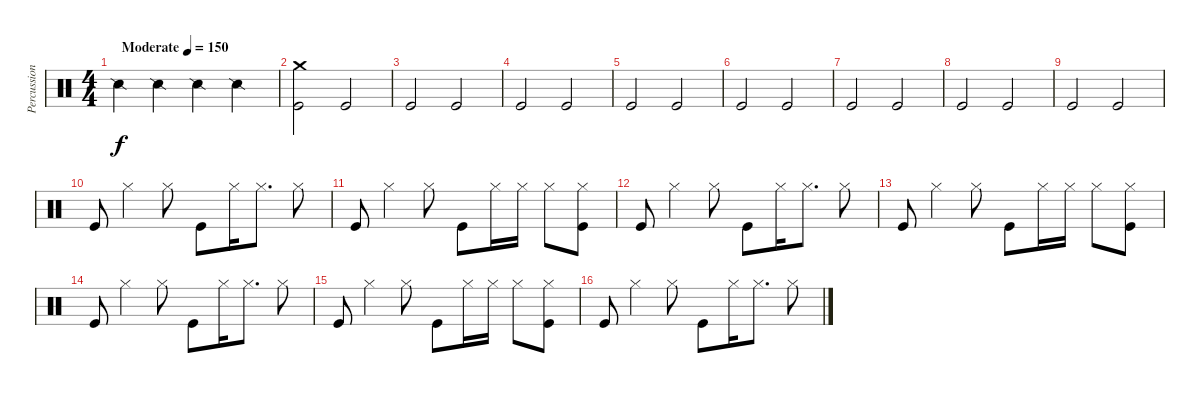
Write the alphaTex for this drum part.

\track ("Percussion" "Percussion") {instrument percussion}
\staff {score}
\articulation defaults
\ts (4 4)
\tempo (150 "Moderate")
\clef neutral
\ks c "Snare (side stick) 2".4{dy f} "Snare (side stick) 2".4 "Snare (side stick) 2".4 "Snare (side stick) 2".4
|
("Crash medium (hit)" "Kick (hit)").2 "Kick (hit)".2 |
"Kick (hit)".2 "Kick (hit)".2 |
"Kick (hit)".2 "Kick (hit)".2 |
"Kick (hit)".2 "Kick (hit)".2 |
"Kick (hit)".2 "Kick (hit)".2 |
"Kick (hit)".2 "Kick (hit)".2 |
"Kick (hit)".2 "Kick (hit)".2 |
"Kick (hit)".2 "Kick (hit)".2 |
"Kick (hit)".8 "Hi-Hat (closed)".4 "Hi-Hat (closed)".8 "Kick (hit)".8 "Hi-Hat (closed)".16 "Hi-Hat (closed)".8{d} "Hi-Hat (closed)".8 |
"Kick (hit)".8 "Hi-Hat (closed)".4 "Hi-Hat (closed)".8 "Kick (hit)".8 "Hi-Hat (closed)".16 "Hi-Hat (closed)".16 "Hi-Hat (closed)".8 ("Hi-Hat (closed)" "Kick (hit)").8 |
"Kick (hit)".8 "Hi-Hat (closed)".4 "Hi-Hat (closed)".8 "Kick (hit)".8 "Hi-Hat (closed)".16 "Hi-Hat (closed)".8{d} "Hi-Hat (closed)".8 |
"Kick (hit)".8 "Hi-Hat (closed)".4 "Hi-Hat (closed)".8 "Kick (hit)".8 "Hi-Hat (closed)".16 "Hi-Hat (closed)".16 "Hi-Hat (closed)".8 ("Hi-Hat (closed)" "Kick (hit)").8 |
"Kick (hit)".8 "Hi-Hat (closed)".4 "Hi-Hat (closed)".8 "Kick (hit)".8 "Hi-Hat (closed)".16 "Hi-Hat (closed)".8{d} "Hi-Hat (closed)".8 |
"Kick (hit)".8 "Hi-Hat (closed)".4 "Hi-Hat (closed)".8 "Kick (hit)".8 "Hi-Hat (closed)".16 "Hi-Hat (closed)".16 "Hi-Hat (closed)".8 ("Hi-Hat (closed)" "Kick (hit)").8 |
"Kick (hit)".8 "Hi-Hat (closed)".4 "Hi-Hat (closed)".8 "Kick (hit)".8 "Hi-Hat (closed)".16 "Hi-Hat (closed)".8{d} "Hi-Hat (closed)".8
